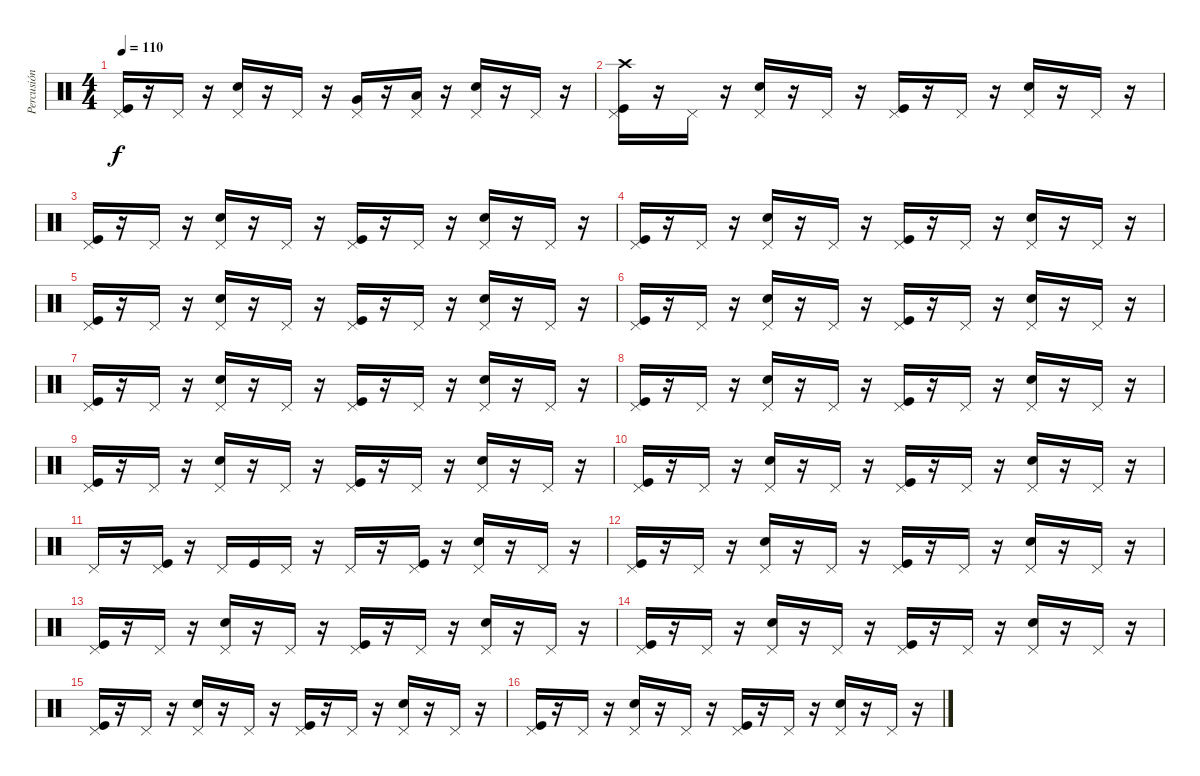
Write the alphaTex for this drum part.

\track ("Percusión" "Percusión") {instrument percussion}
\staff {score}
\articulation defaults
\ts (4 4)
\tempo 110
\clef neutral
\ks c
("Pedal Hi-Hat (hit)" "Kick (hit)").16{dy f} r.16 "Pedal Hi-Hat (hit)".16 r.16 ("Pedal Hi-Hat (hit)" "Electric Snare (hit)").16 r.16 "Pedal Hi-Hat (hit)".16 r.16 ("Pedal Hi-Hat (hit)" "Very Low Tom (hit)").16 r.16 ("Pedal Hi-Hat (hit)" "Low Tom (hit)").16 r.16 ("Pedal Hi-Hat (hit)" "Electric Snare (hit)").16 r.16 "Pedal Hi-Hat (hit)".16 r.16 |
("Pedal Hi-Hat (hit)" "Crash high (hit)" "Kick (hit)").16 r.16 "Pedal Hi-Hat (hit)".16 r.16 ("Pedal Hi-Hat (hit)" "Electric Snare (hit)").16 r.16 "Pedal Hi-Hat (hit)".16 r.16 ("Pedal Hi-Hat (hit)" "Kick (hit)").16 r.16 "Pedal Hi-Hat (hit)".16 r.16 ("Pedal Hi-Hat (hit)" "Electric Snare (hit)").16 r.16 "Pedal Hi-Hat (hit)".16 r.16 |
("Pedal Hi-Hat (hit)" "Kick (hit)").16 r.16 "Pedal Hi-Hat (hit)".16 r.16 ("Pedal Hi-Hat (hit)" "Electric Snare (hit)").16 r.16 "Pedal Hi-Hat (hit)".16 r.16 ("Pedal Hi-Hat (hit)" "Kick (hit)").16 r.16 "Pedal Hi-Hat (hit)".16 r.16 ("Pedal Hi-Hat (hit)" "Electric Snare (hit)").16 r.16 "Pedal Hi-Hat (hit)".16 r.16 |
("Pedal Hi-Hat (hit)" "Kick (hit)").16 r.16 "Pedal Hi-Hat (hit)".16 r.16 ("Pedal Hi-Hat (hit)" "Electric Snare (hit)").16 r.16 "Pedal Hi-Hat (hit)".16 r.16 ("Pedal Hi-Hat (hit)" "Kick (hit)").16 r.16 "Pedal Hi-Hat (hit)".16 r.16 ("Pedal Hi-Hat (hit)" "Electric Snare (hit)").16 r.16 "Pedal Hi-Hat (hit)".16 r.16 |
("Pedal Hi-Hat (hit)" "Kick (hit)").16 r.16 "Pedal Hi-Hat (hit)".16 r.16 ("Pedal Hi-Hat (hit)" "Electric Snare (hit)").16 r.16 "Pedal Hi-Hat (hit)".16 r.16 ("Pedal Hi-Hat (hit)" "Kick (hit)").16 r.16 "Pedal Hi-Hat (hit)".16 r.16 ("Pedal Hi-Hat (hit)" "Electric Snare (hit)").16 r.16 "Pedal Hi-Hat (hit)".16 r.16 |
("Pedal Hi-Hat (hit)" "Kick (hit)").16 r.16 "Pedal Hi-Hat (hit)".16 r.16 ("Pedal Hi-Hat (hit)" "Electric Snare (hit)").16 r.16 "Pedal Hi-Hat (hit)".16 r.16 ("Pedal Hi-Hat (hit)" "Kick (hit)").16 r.16 "Pedal Hi-Hat (hit)".16 r.16 ("Pedal Hi-Hat (hit)" "Electric Snare (hit)").16 r.16 "Pedal Hi-Hat (hit)".16 r.16 |
("Pedal Hi-Hat (hit)" "Kick (hit)").16 r.16 "Pedal Hi-Hat (hit)".16 r.16 ("Pedal Hi-Hat (hit)" "Electric Snare (hit)").16 r.16 "Pedal Hi-Hat (hit)".16 r.16 ("Pedal Hi-Hat (hit)" "Kick (hit)").16 r.16 "Pedal Hi-Hat (hit)".16 r.16 ("Pedal Hi-Hat (hit)" "Electric Snare (hit)").16 r.16 "Pedal Hi-Hat (hit)".16 r.16 |
("Pedal Hi-Hat (hit)" "Kick (hit)").16 r.16 "Pedal Hi-Hat (hit)".16 r.16 ("Pedal Hi-Hat (hit)" "Electric Snare (hit)").16 r.16 "Pedal Hi-Hat (hit)".16 r.16 ("Pedal Hi-Hat (hit)" "Kick (hit)").16 r.16 "Pedal Hi-Hat (hit)".16 r.16 ("Pedal Hi-Hat (hit)" "Electric Snare (hit)").16 r.16 "Pedal Hi-Hat (hit)".16 r.16 |
("Pedal Hi-Hat (hit)" "Kick (hit)").16 r.16 "Pedal Hi-Hat (hit)".16 r.16 ("Pedal Hi-Hat (hit)" "Electric Snare (hit)").16 r.16 "Pedal Hi-Hat (hit)".16 r.16 ("Pedal Hi-Hat (hit)" "Kick (hit)").16 r.16 "Pedal Hi-Hat (hit)".16 r.16 ("Pedal Hi-Hat (hit)" "Electric Snare (hit)").16 r.16 "Pedal Hi-Hat (hit)".16 r.16 |
("Pedal Hi-Hat (hit)" "Kick (hit)").16 r.16 "Pedal Hi-Hat (hit)".16 r.16 ("Pedal Hi-Hat (hit)" "Electric Snare (hit)").16 r.16 "Pedal Hi-Hat (hit)".16 r.16 ("Pedal Hi-Hat (hit)" "Kick (hit)").16 r.16 "Pedal Hi-Hat (hit)".16 r.16 ("Pedal Hi-Hat (hit)" "Electric Snare (hit)").16 r.16 "Pedal Hi-Hat (hit)".16 r.16 |
"Pedal Hi-Hat (hit)".16 r.16 ("Pedal Hi-Hat (hit)" "Kick (hit)").16 r.16 "Pedal Hi-Hat (hit)".16 "Kick (hit)".16 "Pedal Hi-Hat (hit)".16 r.16 "Pedal Hi-Hat (hit)".16 r.16 ("Pedal Hi-Hat (hit)" "Kick (hit)").16 r.16 ("Pedal Hi-Hat (hit)" "Electric Snare (hit)").16 r.16 "Pedal Hi-Hat (hit)".16 r.16 |
("Pedal Hi-Hat (hit)" "Kick (hit)").16 r.16 "Pedal Hi-Hat (hit)".16 r.16 ("Pedal Hi-Hat (hit)" "Electric Snare (hit)").16 r.16 "Pedal Hi-Hat (hit)".16 r.16 ("Pedal Hi-Hat (hit)" "Kick (hit)").16 r.16 "Pedal Hi-Hat (hit)".16 r.16 ("Pedal Hi-Hat (hit)" "Electric Snare (hit)").16 r.16 "Pedal Hi-Hat (hit)".16 r.16 |
("Pedal Hi-Hat (hit)" "Kick (hit)").16 r.16 "Pedal Hi-Hat (hit)".16 r.16 ("Pedal Hi-Hat (hit)" "Electric Snare (hit)").16 r.16 "Pedal Hi-Hat (hit)".16 r.16 ("Pedal Hi-Hat (hit)" "Kick (hit)").16 r.16 "Pedal Hi-Hat (hit)".16 r.16 ("Pedal Hi-Hat (hit)" "Electric Snare (hit)").16 r.16 "Pedal Hi-Hat (hit)".16 r.16 |
("Pedal Hi-Hat (hit)" "Kick (hit)").16 r.16 "Pedal Hi-Hat (hit)".16 r.16 ("Pedal Hi-Hat (hit)" "Electric Snare (hit)").16 r.16 "Pedal Hi-Hat (hit)".16 r.16 ("Pedal Hi-Hat (hit)" "Kick (hit)").16 r.16 "Pedal Hi-Hat (hit)".16 r.16 ("Pedal Hi-Hat (hit)" "Electric Snare (hit)").16 r.16 "Pedal Hi-Hat (hit)".16 r.16 |
("Pedal Hi-Hat (hit)" "Kick (hit)").16 r.16 "Pedal Hi-Hat (hit)".16 r.16 ("Pedal Hi-Hat (hit)" "Electric Snare (hit)").16 r.16 "Pedal Hi-Hat (hit)".16 r.16 ("Pedal Hi-Hat (hit)" "Kick (hit)").16 r.16 "Pedal Hi-Hat (hit)".16 r.16 ("Pedal Hi-Hat (hit)" "Electric Snare (hit)").16 r.16 "Pedal Hi-Hat (hit)".16 r.16 |
("Pedal Hi-Hat (hit)" "Kick (hit)").16 r.16 "Pedal Hi-Hat (hit)".16 r.16 ("Pedal Hi-Hat (hit)" "Electric Snare (hit)").16 r.16 "Pedal Hi-Hat (hit)".16 r.16 ("Pedal Hi-Hat (hit)" "Kick (hit)").16 r.16 "Pedal Hi-Hat (hit)".16 r.16 ("Pedal Hi-Hat (hit)" "Electric Snare (hit)").16 r.16 "Pedal Hi-Hat (hit)".16 r.16
